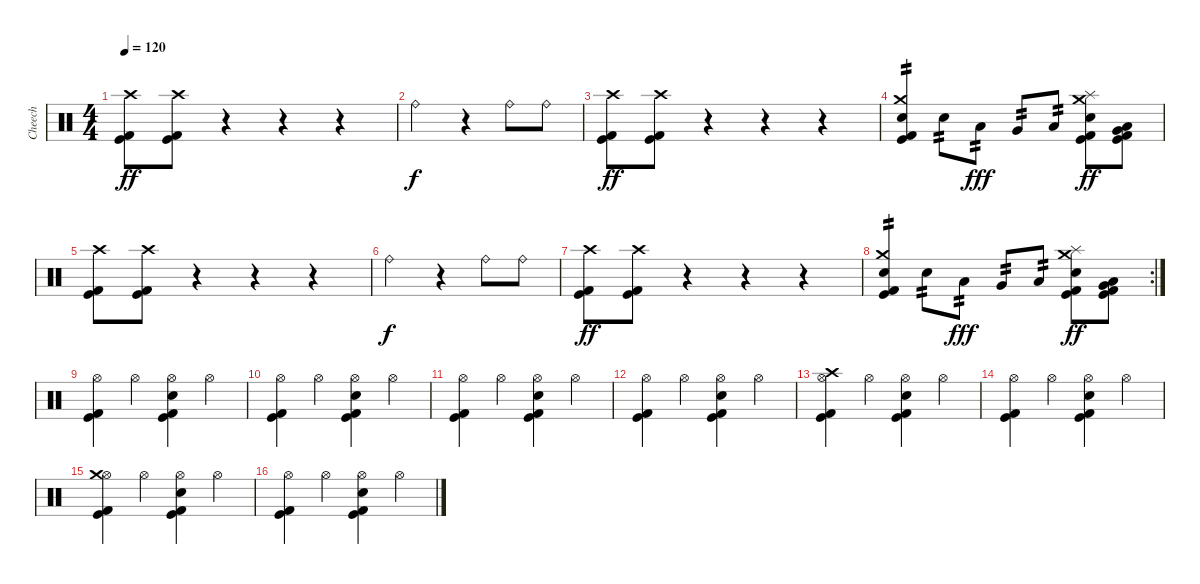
\track ("Cheech" "Cheech") {instrument percussion}
\staff {score}
\articulation defaults
\ts (4 4)
\tempo 120
\clef neutral
\ks c
("Crash high (hit)" "Kick (hit) 2" "Kick (hit)").8{dy ff} ("Crash high (hit)" "Kick (hit) 2" "Kick (hit)").8 r.4 r.4 r.4 |
"Ride (bell)".2{dy f} r.4 "Ride (bell)".8 "Ride (bell)".8 |
("Crash high (hit)" "Kick (hit) 2" "Kick (hit)").8{dy ff} ("Crash high (hit)" "Kick (hit) 2" "Kick (hit)").8 r.4 r.4 r.4 |
("Crash medium (hit)" "Electric Snare (hit)" "Kick (hit) 2" "Kick (hit)").4{tp 2} "Electric Snare (hit)".8{tp 2} "Low Tom (hit)".8{tp 2 dy fff} "Very Low Tom (hit)".8{tp 2} "Low Floor Tom (hit)".8{tp 2} ("Splash (hit)" "Crash medium (hit)" "Electric Snare (hit)" "Kick (hit) 2" "Kick (hit)").8{dy ff} ("Very Low Tom (hit)" "Low Floor Tom (hit)" "Kick (hit) 2" "Kick (hit)").8 |
("Crash high (hit)" "Kick (hit) 2" "Kick (hit)").8 ("Crash high (hit)" "Kick (hit) 2" "Kick (hit)").8 r.4 r.4 r.4 |
"Ride (bell)".2{dy f} r.4 "Ride (bell)".8 "Ride (bell)".8 |
("Crash high (hit)" "Kick (hit) 2" "Kick (hit)").8{dy ff} ("Crash high (hit)" "Kick (hit) 2" "Kick (hit)").8 r.4 r.4 r.4 |
\rc 2
("Crash medium (hit)" "Electric Snare (hit)" "Kick (hit) 2" "Kick (hit)").4{tp 2} "Electric Snare (hit)".8{tp 2} "Low Tom (hit)".8{tp 2 dy fff} "Very Low Tom (hit)".8{tp 2} "Low Floor Tom (hit)".8{tp 2} ("Splash (hit)" "Crash medium (hit)" "Electric Snare (hit)" "Kick (hit) 2" "Kick (hit)").8{dy ff} ("Very Low Tom (hit)" "Low Floor Tom (hit)" "Kick (hit) 2" "Kick (hit)").8 |
("Hi-Hat (open)" "Kick (hit) 2" "Kick (hit)").4 "Hi-Hat (open)".4 ("Hi-Hat (open)" "Electric Snare (hit)" "Kick (hit) 2" "Kick (hit)").4 "Hi-Hat (open)".4 |
("Hi-Hat (open)" "Kick (hit) 2" "Kick (hit)").4 "Hi-Hat (open)".4 ("Hi-Hat (open)" "Electric Snare (hit)" "Kick (hit) 2" "Kick (hit)").4 "Hi-Hat (open)".4 |
("Hi-Hat (open)" "Kick (hit) 2" "Kick (hit)").4 "Hi-Hat (open)".4 ("Hi-Hat (open)" "Electric Snare (hit)" "Kick (hit) 2" "Kick (hit)").4 "Hi-Hat (open)".4 |
("Hi-Hat (open)" "Kick (hit) 2" "Kick (hit)").4 "Hi-Hat (open)".4 ("Hi-Hat (open)" "Electric Snare (hit)" "Kick (hit) 2" "Kick (hit)").4 "Hi-Hat (open)".4 |
("Hi-Hat (open)" "Crash high (hit)" "Kick (hit) 2" "Kick (hit)").4 "Hi-Hat (open)".4 ("Hi-Hat (open)" "Electric Snare (hit)" "Kick (hit) 2" "Kick (hit)").4 "Hi-Hat (open)".4 |
("Hi-Hat (open)" "Kick (hit) 2" "Kick (hit)").4 "Hi-Hat (open)".4 ("Hi-Hat (open)" "Electric Snare (hit)" "Kick (hit) 2" "Kick (hit)").4 "Hi-Hat (open)".4 |
("Hi-Hat (open)" "Crash medium (hit)" "Kick (hit) 2" "Kick (hit)").4 "Hi-Hat (open)".4 ("Hi-Hat (open)" "Electric Snare (hit)" "Kick (hit) 2" "Kick (hit)").4 "Hi-Hat (open)".4 |
("Hi-Hat (open)" "Kick (hit) 2" "Kick (hit)").4 "Hi-Hat (open)".4 ("Hi-Hat (open)" "Electric Snare (hit)" "Kick (hit) 2" "Kick (hit)").4 "Hi-Hat (open)".4
